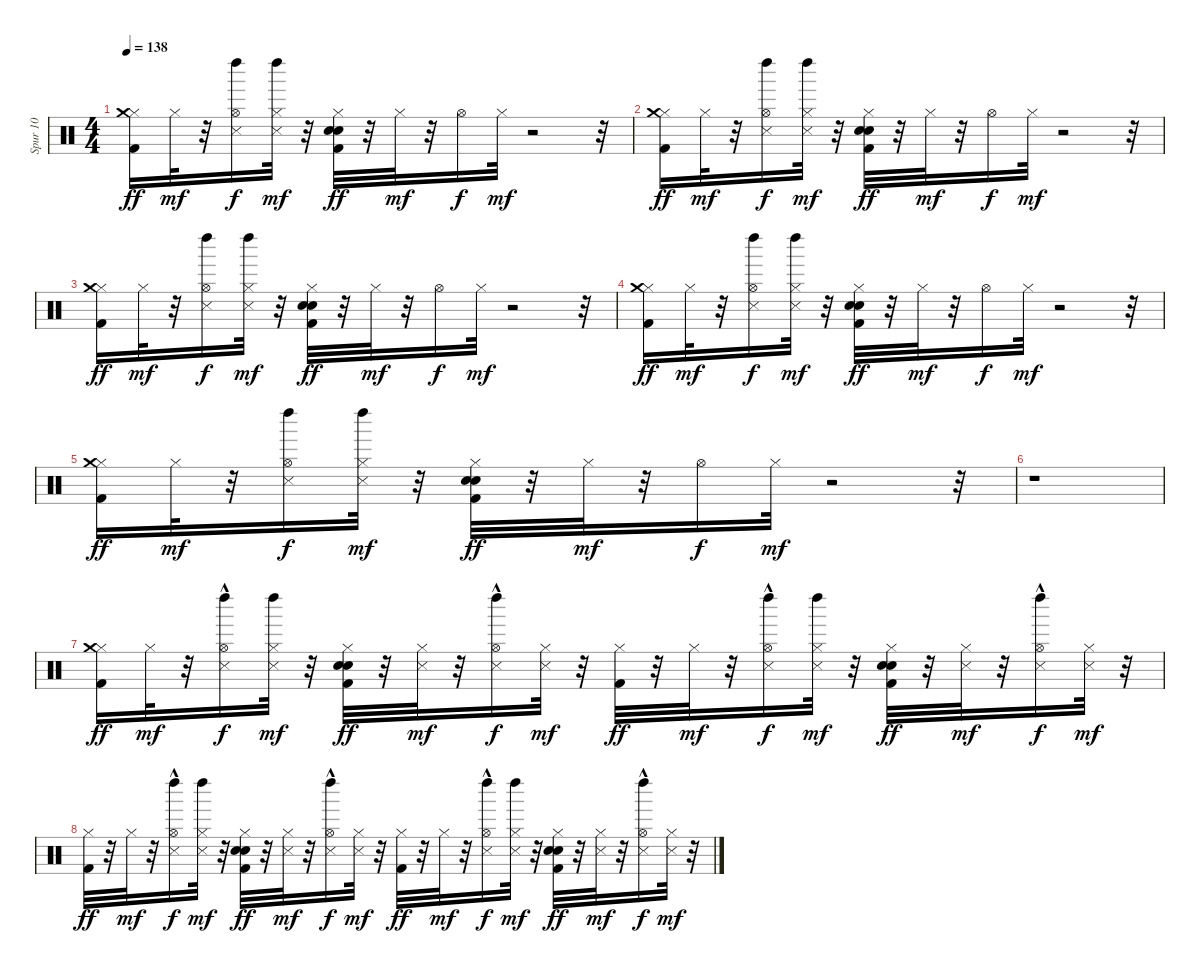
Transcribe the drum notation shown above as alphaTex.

\track ("Spur 10" "Spur 10") {instrument percussion}
\staff {score}
\articulation defaults
\ts (4 4)
\tempo 138
\clef neutral
\ks c
("Hi-Hat (closed)" "Crash medium (hit)" "Kick (hit) 2").16{dy ff} "Hi-Hat (closed)".32{dy mf} r.32 ("Snare (side stick) 3" "Hi-Hat (open)" "Left Maraca (hit)").16{dy f} ("Hi-Hat (closed)" "Snare (side stick) 3" "Left Maraca (hit)").32{dy mf} r.32 ("Hand Clap (hit)" "Hi-Hat (closed)" "Kick (hit) 2" "Electric Snare (hit)").32{dy ff} r.32 "Hi-Hat (closed)".32{dy mf} r.32 "Hi-Hat (open)".16{dy f} "Hi-Hat (closed)".32{dy mf} r.2 r.32 |
("Hi-Hat (closed)" "Crash medium (hit)" "Kick (hit) 2").16{dy ff} "Hi-Hat (closed)".32{dy mf} r.32 ("Snare (side stick) 3" "Hi-Hat (open)" "Left Maraca (hit)").16{dy f} ("Hi-Hat (closed)" "Snare (side stick) 3" "Left Maraca (hit)").32{dy mf} r.32 ("Hand Clap (hit)" "Hi-Hat (closed)" "Kick (hit) 2" "Electric Snare (hit)").32{dy ff} r.32 "Hi-Hat (closed)".32{dy mf} r.32 "Hi-Hat (open)".16{dy f} "Hi-Hat (closed)".32{dy mf} r.2 r.32 |
("Hi-Hat (closed)" "Crash medium (hit)" "Kick (hit) 2").16{dy ff} "Hi-Hat (closed)".32{dy mf} r.32 ("Snare (side stick) 3" "Hi-Hat (open)" "Left Maraca (hit)").16{dy f} ("Hi-Hat (closed)" "Snare (side stick) 3" "Left Maraca (hit)").32{dy mf} r.32 ("Hand Clap (hit)" "Hi-Hat (closed)" "Kick (hit) 2" "Electric Snare (hit)").32{dy ff} r.32 "Hi-Hat (closed)".32{dy mf} r.32 "Hi-Hat (open)".16{dy f} "Hi-Hat (closed)".32{dy mf} r.2 r.32 |
("Hi-Hat (closed)" "Crash medium (hit)" "Kick (hit) 2").16{dy ff} "Hi-Hat (closed)".32{dy mf} r.32 ("Snare (side stick) 3" "Hi-Hat (open)" "Left Maraca (hit)").16{dy f} ("Hi-Hat (closed)" "Snare (side stick) 3" "Left Maraca (hit)").32{dy mf} r.32 ("Hand Clap (hit)" "Hi-Hat (closed)" "Kick (hit) 2" "Electric Snare (hit)").32{dy ff} r.32 "Hi-Hat (closed)".32{dy mf} r.32 "Hi-Hat (open)".16{dy f} "Hi-Hat (closed)".32{dy mf} r.2 r.32 |
("Hi-Hat (closed)" "Crash medium (hit)" "Kick (hit) 2").16{dy ff} "Hi-Hat (closed)".32{dy mf} r.32 ("Snare (side stick) 3" "Hi-Hat (open)" "Left Maraca (hit)").16{dy f} ("Hi-Hat (closed)" "Snare (side stick) 3" "Left Maraca (hit)").32{dy mf} r.32 ("Hand Clap (hit)" "Hi-Hat (closed)" "Kick (hit) 2" "Electric Snare (hit)").32{dy ff} r.32 "Hi-Hat (closed)".32{dy mf} r.32 "Hi-Hat (open)".16{dy f} "Hi-Hat (closed)".32{dy mf} r.2 r.32 |
r.1 |
("Hi-Hat (closed)" "Crash medium (hit)" "Kick (hit) 2").16{dy ff} "Hi-Hat (closed)".32{dy mf} r.32 ("Snare (side stick) 3" "Hi-Hat (open)"{hac} "Left Maraca (hit)").16{dy f} ("Hi-Hat (closed)" "Snare (side stick) 3" "Left Maraca (hit)").32{dy mf} r.32 ("Hand Clap (hit)" "Hi-Hat (closed)" "Kick (hit) 2" "Electric Snare (hit)").32{dy ff} r.32 ("Hi-Hat (closed)" "Snare (side stick) 3").32{dy mf} r.32 ("Snare (side stick) 3" "Hi-Hat (open)"{hac} "Left Maraca (hit)").16{dy f} ("Hi-Hat (closed)" "Snare (side stick) 3").32{dy mf} r.32 ("Hi-Hat (closed)" "Kick (hit) 2").32{dy ff} r.32 "Hi-Hat (closed)".32{dy mf} r.32 ("Snare (side stick) 3" "Hi-Hat (open)"{hac} "Left Maraca (hit)").16{dy f} ("Hi-Hat (closed)" "Snare (side stick) 3" "Left Maraca (hit)").32{dy mf} r.32 ("Hand Clap (hit)" "Hi-Hat (closed)" "Kick (hit) 2" "Electric Snare (hit)").32{dy ff} r.32 ("Hi-Hat (closed)" "Snare (side stick) 3").32{dy mf} r.32 ("Snare (side stick) 3" "Hi-Hat (open)"{hac} "Left Maraca (hit)").16{dy f} ("Hi-Hat (closed)" "Snare (side stick) 3").32{dy mf} r.32 |
("Hi-Hat (closed)" "Kick (hit) 2").32{dy ff} r.32 "Hi-Hat (closed)".32{dy mf} r.32 ("Snare (side stick) 3" "Hi-Hat (open)"{hac} "Left Maraca (hit)").16{dy f} ("Hi-Hat (closed)" "Snare (side stick) 3" "Left Maraca (hit)").32{dy mf} r.32 ("Hand Clap (hit)" "Hi-Hat (closed)" "Kick (hit) 2" "Electric Snare (hit)").32{dy ff} r.32 ("Hi-Hat (closed)" "Snare (side stick) 3").32{dy mf} r.32 ("Snare (side stick) 3" "Hi-Hat (open)"{hac} "Left Maraca (hit)").16{dy f} ("Hi-Hat (closed)" "Snare (side stick) 3").32{dy mf} r.32 ("Hi-Hat (closed)" "Kick (hit) 2").32{dy ff} r.32 "Hi-Hat (closed)".32{dy mf} r.32 ("Snare (side stick) 3" "Hi-Hat (open)"{hac} "Left Maraca (hit)").16{dy f} ("Hi-Hat (closed)" "Snare (side stick) 3" "Left Maraca (hit)").32{dy mf} r.32 ("Hand Clap (hit)" "Hi-Hat (closed)" "Kick (hit) 2" "Electric Snare (hit)").32{dy ff} r.32 ("Hi-Hat (closed)" "Snare (side stick) 3").32{dy mf} r.32 ("Snare (side stick) 3" "Hi-Hat (open)"{hac} "Left Maraca (hit)").16{dy f} ("Hi-Hat (closed)" "Snare (side stick) 3").32{dy mf} r.32
